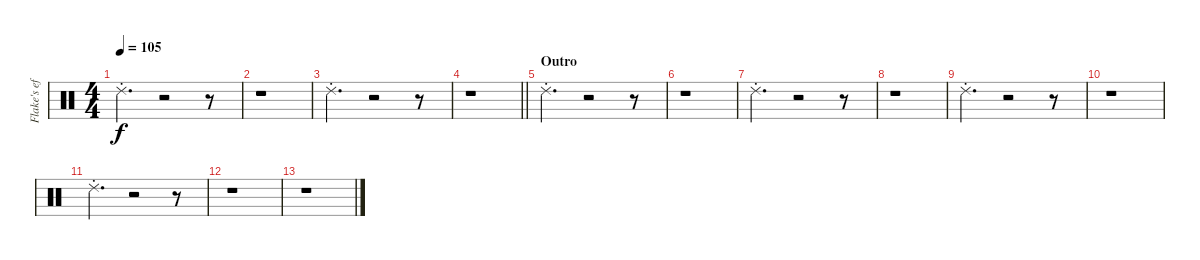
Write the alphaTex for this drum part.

\track ("Flake's effects" "Flake's ef") {instrument percussion}
\staff {score}
\articulation defaults
\ts (4 4)
\tempo 105
\clef neutral
\ks c "Ride (choke) 2".4{d dy f}
r.2 r.8 |
r.1 |
"Ride (choke) 2".4{d} r.2 r.8 |
\barLineRight lightlight
r.1 |
\section ("" "Outro")
"Ride (choke) 2".4{d} r.2 r.8 |
r.1 |
"Ride (choke) 2".4{d} r.2 r.8 |
r.1 |
"Ride (choke) 2".4{d} r.2 r.8 |
r.1 |
"Ride (choke) 2".4{d} r.2 r.8 |
r.1 |
r.1
